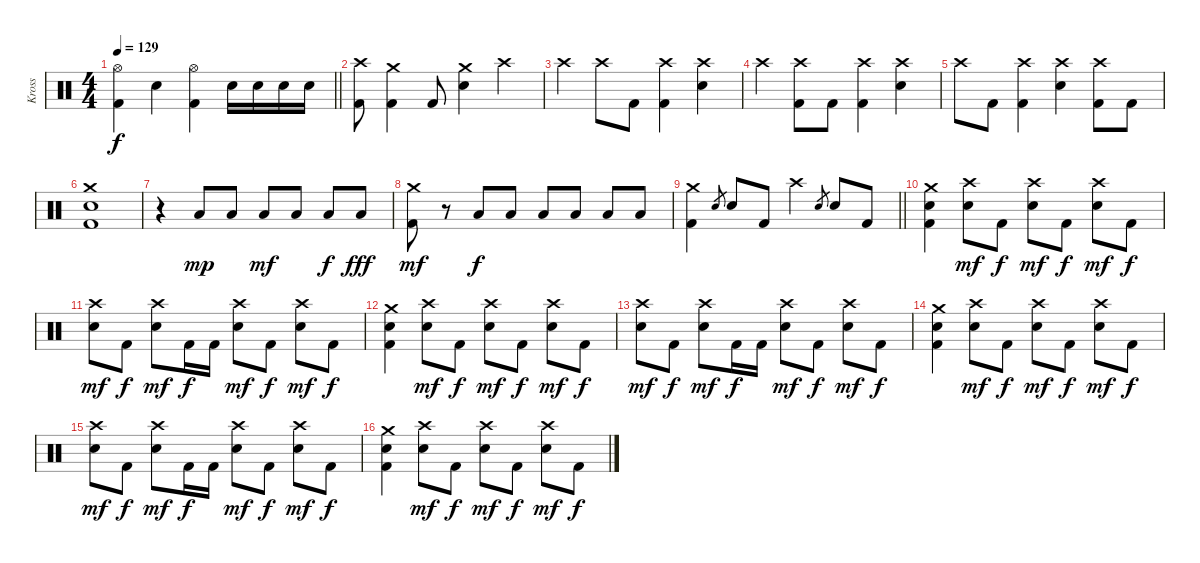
\track ("Kross" "Kross") {instrument percussion}
\staff {score}
\articulation defaults
\ts (4 4)
\tempo 129
\clef neutral
\barLineRight lightlight
\ks c
("Hi-Hat (open)" "Kick (hit) 2").4{dy f} "Electric Snare (hit)".4 ("Hi-Hat (open)" "Kick (hit) 2").4 "Electric Snare (hit)".16 "Electric Snare (hit)".16 "Electric Snare (hit)".16 "Electric Snare (hit)".16 |
("Crash high (hit)" "Kick (hit) 2").8 ("Crash medium (hit)" "Kick (hit) 2").4 "Kick (hit) 2".8 ("Crash medium (hit)" "Electric Snare (hit)").4 "Crash high (hit)".4 |
"Crash high (hit)".4 "Crash high (hit)".8 "Kick (hit) 2".8 ("Crash high (hit)" "Kick (hit) 2").4 ("Crash high (hit)" "Electric Snare (hit)").4 |
"Crash high (hit)".4 ("Crash high (hit)" "Kick (hit) 2").8 "Kick (hit) 2".8 ("Crash high (hit)" "Kick (hit) 2").4 ("Crash high (hit)" "Electric Snare (hit)").4 |
"Crash high (hit)".8 "Kick (hit) 2".8 ("Crash high (hit)" "Kick (hit) 2").4 ("Crash high (hit)" "Electric Snare (hit)").4 ("Crash high (hit)" "Kick (hit) 2").8 "Kick (hit) 2".8 |
("Crash medium (hit)" "Electric Snare (hit)" "Kick (hit) 2").1 |
r.4 "Low Floor Tom (hit)".8{dy mp} "Low Floor Tom (hit)".8 "Low Floor Tom (hit)".8{dy mf} "Low Floor Tom (hit)".8 "Low Floor Tom (hit)".8{dy f} "Low Floor Tom (hit)".8{dy fff} |
("Crash medium (hit)" "Kick (hit) 2").8{dy mf} r.8 "Low Floor Tom (hit)".8{dy f} "Low Floor Tom (hit)".8 "Low Floor Tom (hit)".8 "Low Floor Tom (hit)".8 "Low Floor Tom (hit)".8 "Low Floor Tom (hit)".8 |
\barLineRight lightlight
("Crash medium (hit)" "Kick (hit) 2").4 "Electric Snare (hit)".8{gr} "Electric Snare (hit)".8 "Kick (hit) 2".8 "Crash high (hit)".4 "Electric Snare (hit)".8{gr} "Electric Snare (hit)".8 "Kick (hit) 2".8 |
("Crash medium (hit)" "Electric Snare (hit)" "Kick (hit) 2").4 ("Crash high (hit)" "Electric Snare (hit)").8{dy mf} "Kick (hit) 2".8{dy f} ("Crash high (hit)" "Electric Snare (hit)").8{dy mf} "Kick (hit) 2".8{dy f} ("Crash high (hit)" "Electric Snare (hit)").8{dy mf} "Kick (hit) 2".8{dy f} |
("Crash high (hit)" "Electric Snare (hit)").8{dy mf} "Kick (hit) 2".8{dy f} ("Crash high (hit)" "Electric Snare (hit)").8{dy mf} "Kick (hit) 2".16{dy f} "Kick (hit) 2".16 ("Crash high (hit)" "Electric Snare (hit)").8{dy mf} "Kick (hit) 2".8{dy f} ("Crash high (hit)" "Electric Snare (hit)").8{dy mf} "Kick (hit) 2".8{dy f} |
("Crash medium (hit)" "Electric Snare (hit)" "Kick (hit) 2").4 ("Crash high (hit)" "Electric Snare (hit)").8{dy mf} "Kick (hit) 2".8{dy f} ("Crash high (hit)" "Electric Snare (hit)").8{dy mf} "Kick (hit) 2".8{dy f} ("Crash high (hit)" "Electric Snare (hit)").8{dy mf} "Kick (hit) 2".8{dy f} |
("Crash high (hit)" "Electric Snare (hit)").8{dy mf} "Kick (hit) 2".8{dy f} ("Crash high (hit)" "Electric Snare (hit)").8{dy mf} "Kick (hit) 2".16{dy f} "Kick (hit) 2".16 ("Crash high (hit)" "Electric Snare (hit)").8{dy mf} "Kick (hit) 2".8{dy f} ("Crash high (hit)" "Electric Snare (hit)").8{dy mf} "Kick (hit) 2".8{dy f} |
("Crash medium (hit)" "Electric Snare (hit)" "Kick (hit) 2").4 ("Crash high (hit)" "Electric Snare (hit)").8{dy mf} "Kick (hit) 2".8{dy f} ("Crash high (hit)" "Electric Snare (hit)").8{dy mf} "Kick (hit) 2".8{dy f} ("Crash high (hit)" "Electric Snare (hit)").8{dy mf} "Kick (hit) 2".8{dy f} |
("Crash high (hit)" "Electric Snare (hit)").8{dy mf} "Kick (hit) 2".8{dy f} ("Crash high (hit)" "Electric Snare (hit)").8{dy mf} "Kick (hit) 2".16{dy f} "Kick (hit) 2".16 ("Crash high (hit)" "Electric Snare (hit)").8{dy mf} "Kick (hit) 2".8{dy f} ("Crash high (hit)" "Electric Snare (hit)").8{dy mf} "Kick (hit) 2".8{dy f} |
("Crash medium (hit)" "Electric Snare (hit)" "Kick (hit) 2").4 ("Crash high (hit)" "Electric Snare (hit)").8{dy mf} "Kick (hit) 2".8{dy f} ("Crash high (hit)" "Electric Snare (hit)").8{dy mf} "Kick (hit) 2".8{dy f} ("Crash high (hit)" "Electric Snare (hit)").8{dy mf} "Kick (hit) 2".8{dy f}
